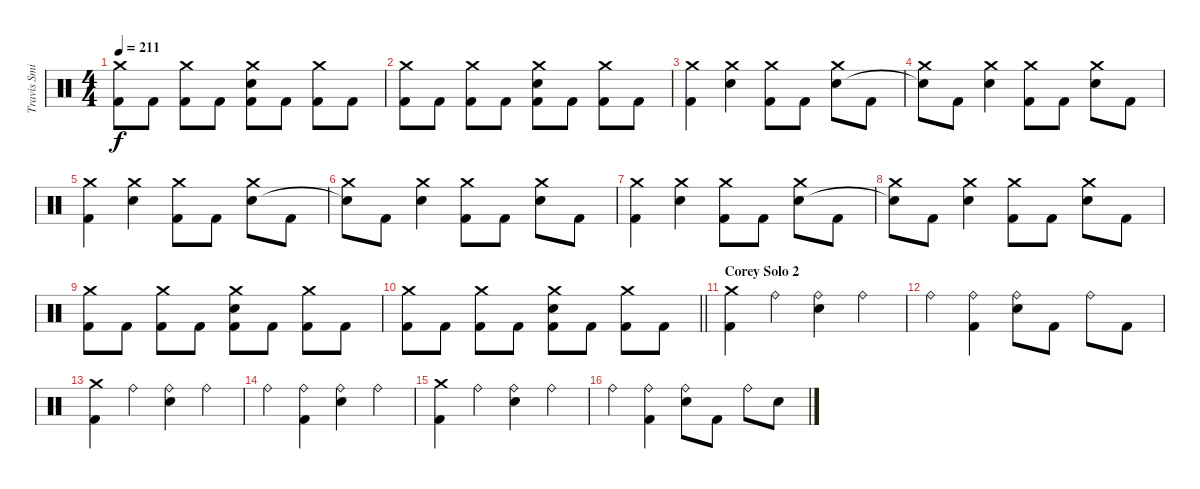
\track ("Travis Smith" "Travis Smi") {instrument percussion}
\staff {score}
\articulation defaults
\ts (4 4)
\tempo 211
\clef neutral
\ks c
("Crash medium (hit)" "Kick (hit) 2").8{dy f} "Kick (hit) 2".8 ("Crash medium (hit)" "Kick (hit) 2").8 "Kick (hit) 2".8 ("Crash medium (hit)" "Electric Snare (hit)" "Kick (hit) 2").8 "Kick (hit) 2".8 ("Crash medium (hit)" "Kick (hit) 2").8 "Kick (hit) 2".8 |
("Crash medium (hit)" "Kick (hit) 2").8 "Kick (hit) 2".8 ("Crash medium (hit)" "Kick (hit) 2").8 "Kick (hit) 2".8 ("Crash medium (hit)" "Electric Snare (hit)" "Kick (hit) 2").8 "Kick (hit) 2".8 ("Crash medium (hit)" "Kick (hit) 2").8 "Kick (hit) 2".8 |
("Crash medium (hit)" "Kick (hit) 2").4 ("Crash medium (hit)" "Electric Snare (hit)").4 ("Crash medium (hit)" "Kick (hit) 2").8 "Kick (hit) 2".8 ("Crash medium (hit)" "Electric Snare (hit)").8 "Kick (hit) 2".8 |
("Crash medium (hit)" "Snare (hit)"{t}).8 "Kick (hit) 2".8 ("Crash medium (hit)" "Electric Snare (hit)").4 ("Crash medium (hit)" "Kick (hit) 2").8 "Kick (hit) 2".8 ("Crash medium (hit)" "Electric Snare (hit)").8 "Kick (hit) 2".8 |
("Crash medium (hit)" "Kick (hit) 2").4 ("Crash medium (hit)" "Electric Snare (hit)").4 ("Crash medium (hit)" "Kick (hit) 2").8 "Kick (hit) 2".8 ("Crash medium (hit)" "Electric Snare (hit)").8 "Kick (hit) 2".8 |
("Crash medium (hit)" "Snare (hit)"{t}).8 "Kick (hit) 2".8 ("Crash medium (hit)" "Electric Snare (hit)").4 ("Crash medium (hit)" "Kick (hit) 2").8 "Kick (hit) 2".8 ("Crash medium (hit)" "Electric Snare (hit)").8 "Kick (hit) 2".8 |
("Crash medium (hit)" "Kick (hit) 2").4 ("Crash medium (hit)" "Electric Snare (hit)").4 ("Crash medium (hit)" "Kick (hit) 2").8 "Kick (hit) 2".8 ("Crash medium (hit)" "Electric Snare (hit)").8 "Kick (hit) 2".8 |
("Crash medium (hit)" "Snare (hit)"{t}).8 "Kick (hit) 2".8 ("Crash medium (hit)" "Electric Snare (hit)").4 ("Crash medium (hit)" "Kick (hit) 2").8 "Kick (hit) 2".8 ("Crash medium (hit)" "Electric Snare (hit)").8 "Kick (hit) 2".8 |
("Crash medium (hit)" "Kick (hit) 2").8 "Kick (hit) 2".8 ("Crash medium (hit)" "Kick (hit) 2").8 "Kick (hit) 2".8 ("Crash medium (hit)" "Electric Snare (hit)" "Kick (hit) 2").8 "Kick (hit) 2".8 ("Crash medium (hit)" "Kick (hit) 2").8 "Kick (hit) 2".8 |
\barLineRight lightlight
("Crash medium (hit)" "Kick (hit) 2").8 "Kick (hit) 2".8 ("Crash medium (hit)" "Kick (hit) 2").8 "Kick (hit) 2".8 ("Crash medium (hit)" "Electric Snare (hit)" "Kick (hit) 2").8 "Kick (hit) 2".8 ("Crash medium (hit)" "Kick (hit) 2").8 "Kick (hit) 2".8 |
\section ("" "Corey Solo 2")
("Crash medium (hit)" "Kick (hit) 2").4 "Ride (bell)".4 ("Ride (bell)" "Electric Snare (hit)").4 "Ride (bell)".4 |
"Ride (bell)".4 ("Ride (bell)" "Kick (hit) 2").4 ("Ride (bell)" "Electric Snare (hit)").8 "Kick (hit) 2".8 "Ride (bell)".8 "Kick (hit) 2".8 |
("Crash medium (hit)" "Kick (hit) 2").4 "Ride (bell)".4 ("Ride (bell)" "Electric Snare (hit)").4 "Ride (bell)".4 |
"Ride (bell)".4 ("Ride (bell)" "Kick (hit) 2").4 ("Ride (bell)" "Electric Snare (hit)").4 "Ride (bell)".4 |
("Crash medium (hit)" "Kick (hit) 2").4 "Ride (bell)".4 ("Ride (bell)" "Electric Snare (hit)").4 "Ride (bell)".4 |
"Ride (bell)".4 ("Ride (bell)" "Kick (hit) 2").4 ("Ride (bell)" "Electric Snare (hit)").8 "Kick (hit) 2".8 "Ride (bell)".8 "Electric Snare (hit)".8
